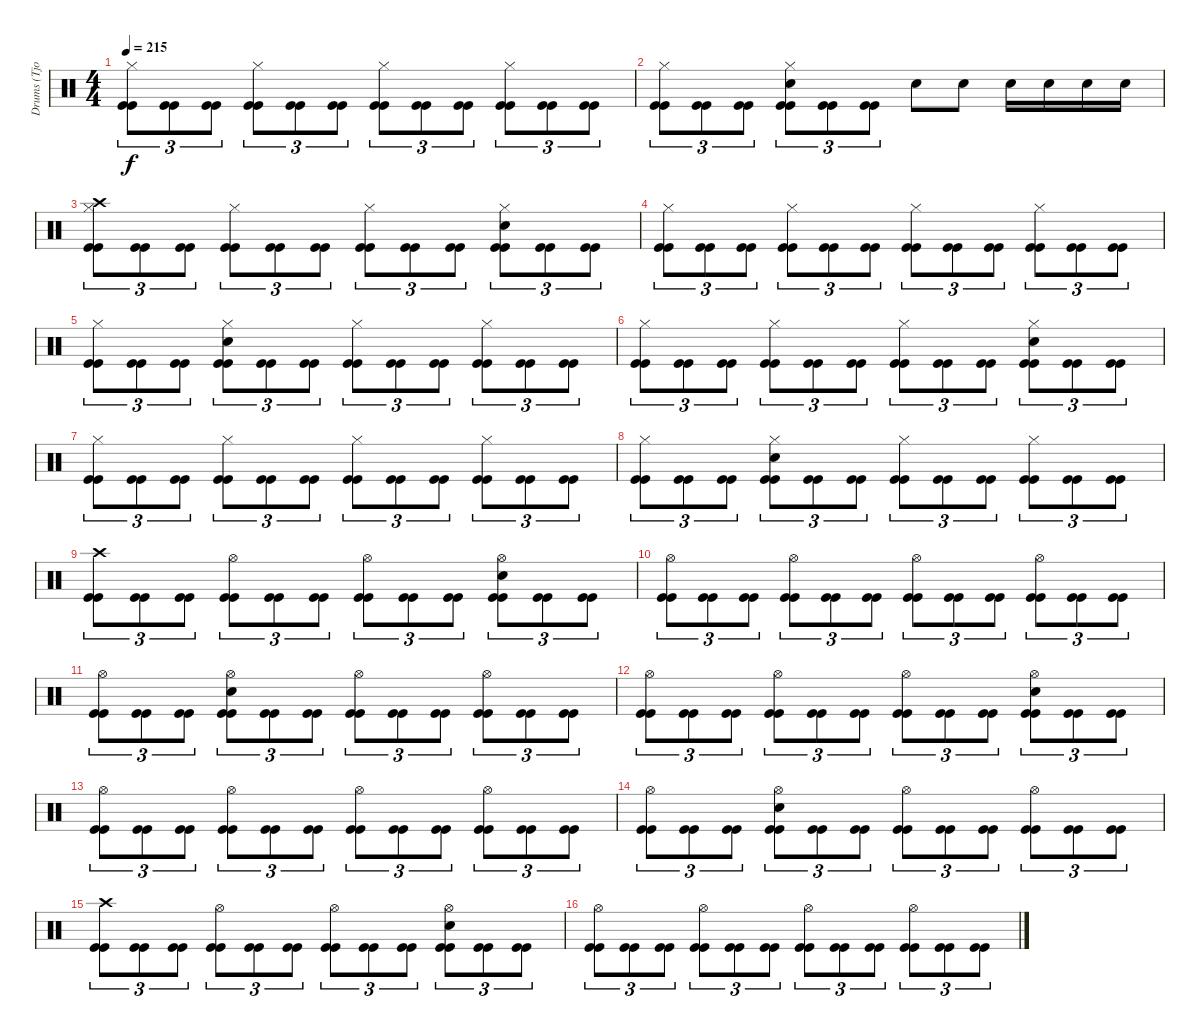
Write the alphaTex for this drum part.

\track ("Drums (Tjodalv)" "Drums (Tjo") {instrument percussion}
\staff {score}
\articulation defaults
\ts (4 4)
\tempo 215
\clef neutral
\ks c
("Hi-Hat (closed)" "Kick (hit)" "Kick (hit)").8{tu (3 2) dy f} ("Kick (hit)" "Kick (hit)").8{tu (3 2)} ("Kick (hit)" "Kick (hit)").8{tu (3 2)} ("Hi-Hat (closed)" "Kick (hit)" "Kick (hit)").8{tu (3 2)} ("Kick (hit)" "Kick (hit)").8{tu (3 2)} ("Kick (hit)" "Kick (hit)").8{tu (3 2)} ("Hi-Hat (closed)" "Kick (hit)" "Kick (hit)").8{tu (3 2)} ("Kick (hit)" "Kick (hit)").8{tu (3 2)} ("Kick (hit)" "Kick (hit)").8{tu (3 2)} ("Hi-Hat (closed)" "Kick (hit)" "Kick (hit)").8{tu (3 2)} ("Kick (hit)" "Kick (hit)").8{tu (3 2)} ("Kick (hit)" "Kick (hit)").8{tu (3 2)} |
("Hi-Hat (closed)" "Kick (hit)" "Kick (hit)").8{tu (3 2)} ("Kick (hit)" "Kick (hit)").8{tu (3 2)} ("Kick (hit)" "Kick (hit)").8{tu (3 2)} ("Snare (hit) 2" "Hi-Hat (closed)" "Kick (hit)" "Kick (hit)").8{tu (3 2)} ("Kick (hit)" "Kick (hit)").8{tu (3 2)} ("Kick (hit)" "Kick (hit)").8{tu (3 2)} "Snare (hit) 2".8 "Snare (hit) 2".8 "Snare (hit) 2".16 "Snare (hit) 2".16 "Snare (hit) 2".16 "Snare (hit) 2".16 |
("Crash high (hit)" "Hi-Hat (closed)" "Kick (hit)" "Kick (hit)").8{tu (3 2)} ("Kick (hit)" "Kick (hit)").8{tu (3 2)} ("Kick (hit)" "Kick (hit)").8{tu (3 2)} ("Hi-Hat (closed)" "Kick (hit)" "Kick (hit)").8{tu (3 2)} ("Kick (hit)" "Kick (hit)").8{tu (3 2)} ("Kick (hit)" "Kick (hit)").8{tu (3 2)} ("Hi-Hat (closed)" "Kick (hit)" "Kick (hit)").8{tu (3 2)} ("Kick (hit)" "Kick (hit)").8{tu (3 2)} ("Kick (hit)" "Kick (hit)").8{tu (3 2)} ("Snare (hit) 2" "Hi-Hat (closed)" "Kick (hit)" "Kick (hit)").8{tu (3 2)} ("Kick (hit)" "Kick (hit)").8{tu (3 2)} ("Kick (hit)" "Kick (hit)").8{tu (3 2)} |
("Hi-Hat (closed)" "Kick (hit)" "Kick (hit)").8{tu (3 2)} ("Kick (hit)" "Kick (hit)").8{tu (3 2)} ("Kick (hit)" "Kick (hit)").8{tu (3 2)} ("Hi-Hat (closed)" "Kick (hit)" "Kick (hit)").8{tu (3 2)} ("Kick (hit)" "Kick (hit)").8{tu (3 2)} ("Kick (hit)" "Kick (hit)").8{tu (3 2)} ("Hi-Hat (closed)" "Kick (hit)" "Kick (hit)").8{tu (3 2)} ("Kick (hit)" "Kick (hit)").8{tu (3 2)} ("Kick (hit)" "Kick (hit)").8{tu (3 2)} ("Hi-Hat (closed)" "Kick (hit)" "Kick (hit)").8{tu (3 2)} ("Kick (hit)" "Kick (hit)").8{tu (3 2)} ("Kick (hit)" "Kick (hit)").8{tu (3 2)} |
("Hi-Hat (closed)" "Kick (hit)" "Kick (hit)").8{tu (3 2)} ("Kick (hit)" "Kick (hit)").8{tu (3 2)} ("Kick (hit)" "Kick (hit)").8{tu (3 2)} ("Snare (hit) 2" "Hi-Hat (closed)" "Kick (hit)" "Kick (hit)").8{tu (3 2)} ("Kick (hit)" "Kick (hit)").8{tu (3 2)} ("Kick (hit)" "Kick (hit)").8{tu (3 2)} ("Hi-Hat (closed)" "Kick (hit)" "Kick (hit)").8{tu (3 2)} ("Kick (hit)" "Kick (hit)").8{tu (3 2)} ("Kick (hit)" "Kick (hit)").8{tu (3 2)} ("Hi-Hat (closed)" "Kick (hit)" "Kick (hit)").8{tu (3 2)} ("Kick (hit)" "Kick (hit)").8{tu (3 2)} ("Kick (hit)" "Kick (hit)").8{tu (3 2)} |
("Hi-Hat (closed)" "Kick (hit)" "Kick (hit)").8{tu (3 2)} ("Kick (hit)" "Kick (hit)").8{tu (3 2)} ("Kick (hit)" "Kick (hit)").8{tu (3 2)} ("Hi-Hat (closed)" "Kick (hit)" "Kick (hit)").8{tu (3 2)} ("Kick (hit)" "Kick (hit)").8{tu (3 2)} ("Kick (hit)" "Kick (hit)").8{tu (3 2)} ("Hi-Hat (closed)" "Kick (hit)" "Kick (hit)").8{tu (3 2)} ("Kick (hit)" "Kick (hit)").8{tu (3 2)} ("Kick (hit)" "Kick (hit)").8{tu (3 2)} ("Snare (hit) 2" "Hi-Hat (closed)" "Kick (hit)" "Kick (hit)").8{tu (3 2)} ("Kick (hit)" "Kick (hit)").8{tu (3 2)} ("Kick (hit)" "Kick (hit)").8{tu (3 2)} |
("Hi-Hat (closed)" "Kick (hit)" "Kick (hit)").8{tu (3 2)} ("Kick (hit)" "Kick (hit)").8{tu (3 2)} ("Kick (hit)" "Kick (hit)").8{tu (3 2)} ("Hi-Hat (closed)" "Kick (hit)" "Kick (hit)").8{tu (3 2)} ("Kick (hit)" "Kick (hit)").8{tu (3 2)} ("Kick (hit)" "Kick (hit)").8{tu (3 2)} ("Hi-Hat (closed)" "Kick (hit)" "Kick (hit)").8{tu (3 2)} ("Kick (hit)" "Kick (hit)").8{tu (3 2)} ("Kick (hit)" "Kick (hit)").8{tu (3 2)} ("Hi-Hat (closed)" "Kick (hit)" "Kick (hit)").8{tu (3 2)} ("Kick (hit)" "Kick (hit)").8{tu (3 2)} ("Kick (hit)" "Kick (hit)").8{tu (3 2)} |
("Hi-Hat (closed)" "Kick (hit)" "Kick (hit)").8{tu (3 2)} ("Kick (hit)" "Kick (hit)").8{tu (3 2)} ("Kick (hit)" "Kick (hit)").8{tu (3 2)} ("Snare (hit) 2" "Hi-Hat (closed)" "Kick (hit)" "Kick (hit)").8{tu (3 2)} ("Kick (hit)" "Kick (hit)").8{tu (3 2)} ("Kick (hit)" "Kick (hit)").8{tu (3 2)} ("Hi-Hat (closed)" "Kick (hit)" "Kick (hit)").8{tu (3 2)} ("Kick (hit)" "Kick (hit)").8{tu (3 2)} ("Kick (hit)" "Kick (hit)").8{tu (3 2)} ("Hi-Hat (closed)" "Kick (hit)" "Kick (hit)").8{tu (3 2)} ("Kick (hit)" "Kick (hit)").8{tu (3 2)} ("Kick (hit)" "Kick (hit)").8{tu (3 2)} |
("Crash high (hit)" "Kick (hit)" "Kick (hit)").8{tu (3 2)} ("Kick (hit)" "Kick (hit)").8{tu (3 2)} ("Kick (hit)" "Kick (hit)").8{tu (3 2)} ("Hi-Hat (open)" "Kick (hit)" "Kick (hit)").8{tu (3 2)} ("Kick (hit)" "Kick (hit)").8{tu (3 2)} ("Kick (hit)" "Kick (hit)").8{tu (3 2)} ("Hi-Hat (open)" "Kick (hit)" "Kick (hit)").8{tu (3 2)} ("Kick (hit)" "Kick (hit)").8{tu (3 2)} ("Kick (hit)" "Kick (hit)").8{tu (3 2)} ("Snare (hit) 2" "Hi-Hat (open)" "Kick (hit)" "Kick (hit)").8{tu (3 2)} ("Kick (hit)" "Kick (hit)").8{tu (3 2)} ("Kick (hit)" "Kick (hit)").8{tu (3 2)} |
("Hi-Hat (open)" "Kick (hit)" "Kick (hit)").8{tu (3 2)} ("Kick (hit)" "Kick (hit)").8{tu (3 2)} ("Kick (hit)" "Kick (hit)").8{tu (3 2)} ("Hi-Hat (open)" "Kick (hit)" "Kick (hit)").8{tu (3 2)} ("Kick (hit)" "Kick (hit)").8{tu (3 2)} ("Kick (hit)" "Kick (hit)").8{tu (3 2)} ("Hi-Hat (open)" "Kick (hit)" "Kick (hit)").8{tu (3 2)} ("Kick (hit)" "Kick (hit)").8{tu (3 2)} ("Kick (hit)" "Kick (hit)").8{tu (3 2)} ("Hi-Hat (open)" "Kick (hit)" "Kick (hit)").8{tu (3 2)} ("Kick (hit)" "Kick (hit)").8{tu (3 2)} ("Kick (hit)" "Kick (hit)").8{tu (3 2)} |
("Hi-Hat (open)" "Kick (hit)" "Kick (hit)").8{tu (3 2)} ("Kick (hit)" "Kick (hit)").8{tu (3 2)} ("Kick (hit)" "Kick (hit)").8{tu (3 2)} ("Snare (hit) 2" "Hi-Hat (open)" "Kick (hit)" "Kick (hit)").8{tu (3 2)} ("Kick (hit)" "Kick (hit)").8{tu (3 2)} ("Kick (hit)" "Kick (hit)").8{tu (3 2)} ("Hi-Hat (open)" "Kick (hit)" "Kick (hit)").8{tu (3 2)} ("Kick (hit)" "Kick (hit)").8{tu (3 2)} ("Kick (hit)" "Kick (hit)").8{tu (3 2)} ("Hi-Hat (open)" "Kick (hit)" "Kick (hit)").8{tu (3 2)} ("Kick (hit)" "Kick (hit)").8{tu (3 2)} ("Kick (hit)" "Kick (hit)").8{tu (3 2)} |
("Hi-Hat (open)" "Kick (hit)" "Kick (hit)").8{tu (3 2)} ("Kick (hit)" "Kick (hit)").8{tu (3 2)} ("Kick (hit)" "Kick (hit)").8{tu (3 2)} ("Hi-Hat (open)" "Kick (hit)" "Kick (hit)").8{tu (3 2)} ("Kick (hit)" "Kick (hit)").8{tu (3 2)} ("Kick (hit)" "Kick (hit)").8{tu (3 2)} ("Hi-Hat (open)" "Kick (hit)" "Kick (hit)").8{tu (3 2)} ("Kick (hit)" "Kick (hit)").8{tu (3 2)} ("Kick (hit)" "Kick (hit)").8{tu (3 2)} ("Snare (hit) 2" "Hi-Hat (open)" "Kick (hit)" "Kick (hit)").8{tu (3 2)} ("Kick (hit)" "Kick (hit)").8{tu (3 2)} ("Kick (hit)" "Kick (hit)").8{tu (3 2)} |
("Hi-Hat (open)" "Kick (hit)" "Kick (hit)").8{tu (3 2)} ("Kick (hit)" "Kick (hit)").8{tu (3 2)} ("Kick (hit)" "Kick (hit)").8{tu (3 2)} ("Hi-Hat (open)" "Kick (hit)" "Kick (hit)").8{tu (3 2)} ("Kick (hit)" "Kick (hit)").8{tu (3 2)} ("Kick (hit)" "Kick (hit)").8{tu (3 2)} ("Hi-Hat (open)" "Kick (hit)" "Kick (hit)").8{tu (3 2)} ("Kick (hit)" "Kick (hit)").8{tu (3 2)} ("Kick (hit)" "Kick (hit)").8{tu (3 2)} ("Hi-Hat (open)" "Kick (hit)" "Kick (hit)").8{tu (3 2)} ("Kick (hit)" "Kick (hit)").8{tu (3 2)} ("Kick (hit)" "Kick (hit)").8{tu (3 2)} |
("Hi-Hat (open)" "Kick (hit)" "Kick (hit)").8{tu (3 2)} ("Kick (hit)" "Kick (hit)").8{tu (3 2)} ("Kick (hit)" "Kick (hit)").8{tu (3 2)} ("Snare (hit) 2" "Hi-Hat (open)" "Kick (hit)" "Kick (hit)").8{tu (3 2)} ("Kick (hit)" "Kick (hit)").8{tu (3 2)} ("Kick (hit)" "Kick (hit)").8{tu (3 2)} ("Hi-Hat (open)" "Kick (hit)" "Kick (hit)").8{tu (3 2)} ("Kick (hit)" "Kick (hit)").8{tu (3 2)} ("Kick (hit)" "Kick (hit)").8{tu (3 2)} ("Hi-Hat (open)" "Kick (hit)" "Kick (hit)").8{tu (3 2)} ("Kick (hit)" "Kick (hit)").8{tu (3 2)} ("Kick (hit)" "Kick (hit)").8{tu (3 2)} |
("Crash high (hit)" "Kick (hit)" "Kick (hit)").8{tu (3 2)} ("Kick (hit)" "Kick (hit)").8{tu (3 2)} ("Kick (hit)" "Kick (hit)").8{tu (3 2)} ("Hi-Hat (open)" "Kick (hit)" "Kick (hit)").8{tu (3 2)} ("Kick (hit)" "Kick (hit)").8{tu (3 2)} ("Kick (hit)" "Kick (hit)").8{tu (3 2)} ("Hi-Hat (open)" "Kick (hit)" "Kick (hit)").8{tu (3 2)} ("Kick (hit)" "Kick (hit)").8{tu (3 2)} ("Kick (hit)" "Kick (hit)").8{tu (3 2)} ("Snare (hit) 2" "Hi-Hat (open)" "Kick (hit)" "Kick (hit)").8{tu (3 2)} ("Kick (hit)" "Kick (hit)").8{tu (3 2)} ("Kick (hit)" "Kick (hit)").8{tu (3 2)} |
("Hi-Hat (open)" "Kick (hit)" "Kick (hit)").8{tu (3 2)} ("Kick (hit)" "Kick (hit)").8{tu (3 2)} ("Kick (hit)" "Kick (hit)").8{tu (3 2)} ("Hi-Hat (open)" "Kick (hit)" "Kick (hit)").8{tu (3 2)} ("Kick (hit)" "Kick (hit)").8{tu (3 2)} ("Kick (hit)" "Kick (hit)").8{tu (3 2)} ("Hi-Hat (open)" "Kick (hit)" "Kick (hit)").8{tu (3 2)} ("Kick (hit)" "Kick (hit)").8{tu (3 2)} ("Kick (hit)" "Kick (hit)").8{tu (3 2)} ("Hi-Hat (open)" "Kick (hit)" "Kick (hit)").8{tu (3 2)} ("Kick (hit)" "Kick (hit)").8{tu (3 2)} ("Kick (hit)" "Kick (hit)").8{tu (3 2)}
